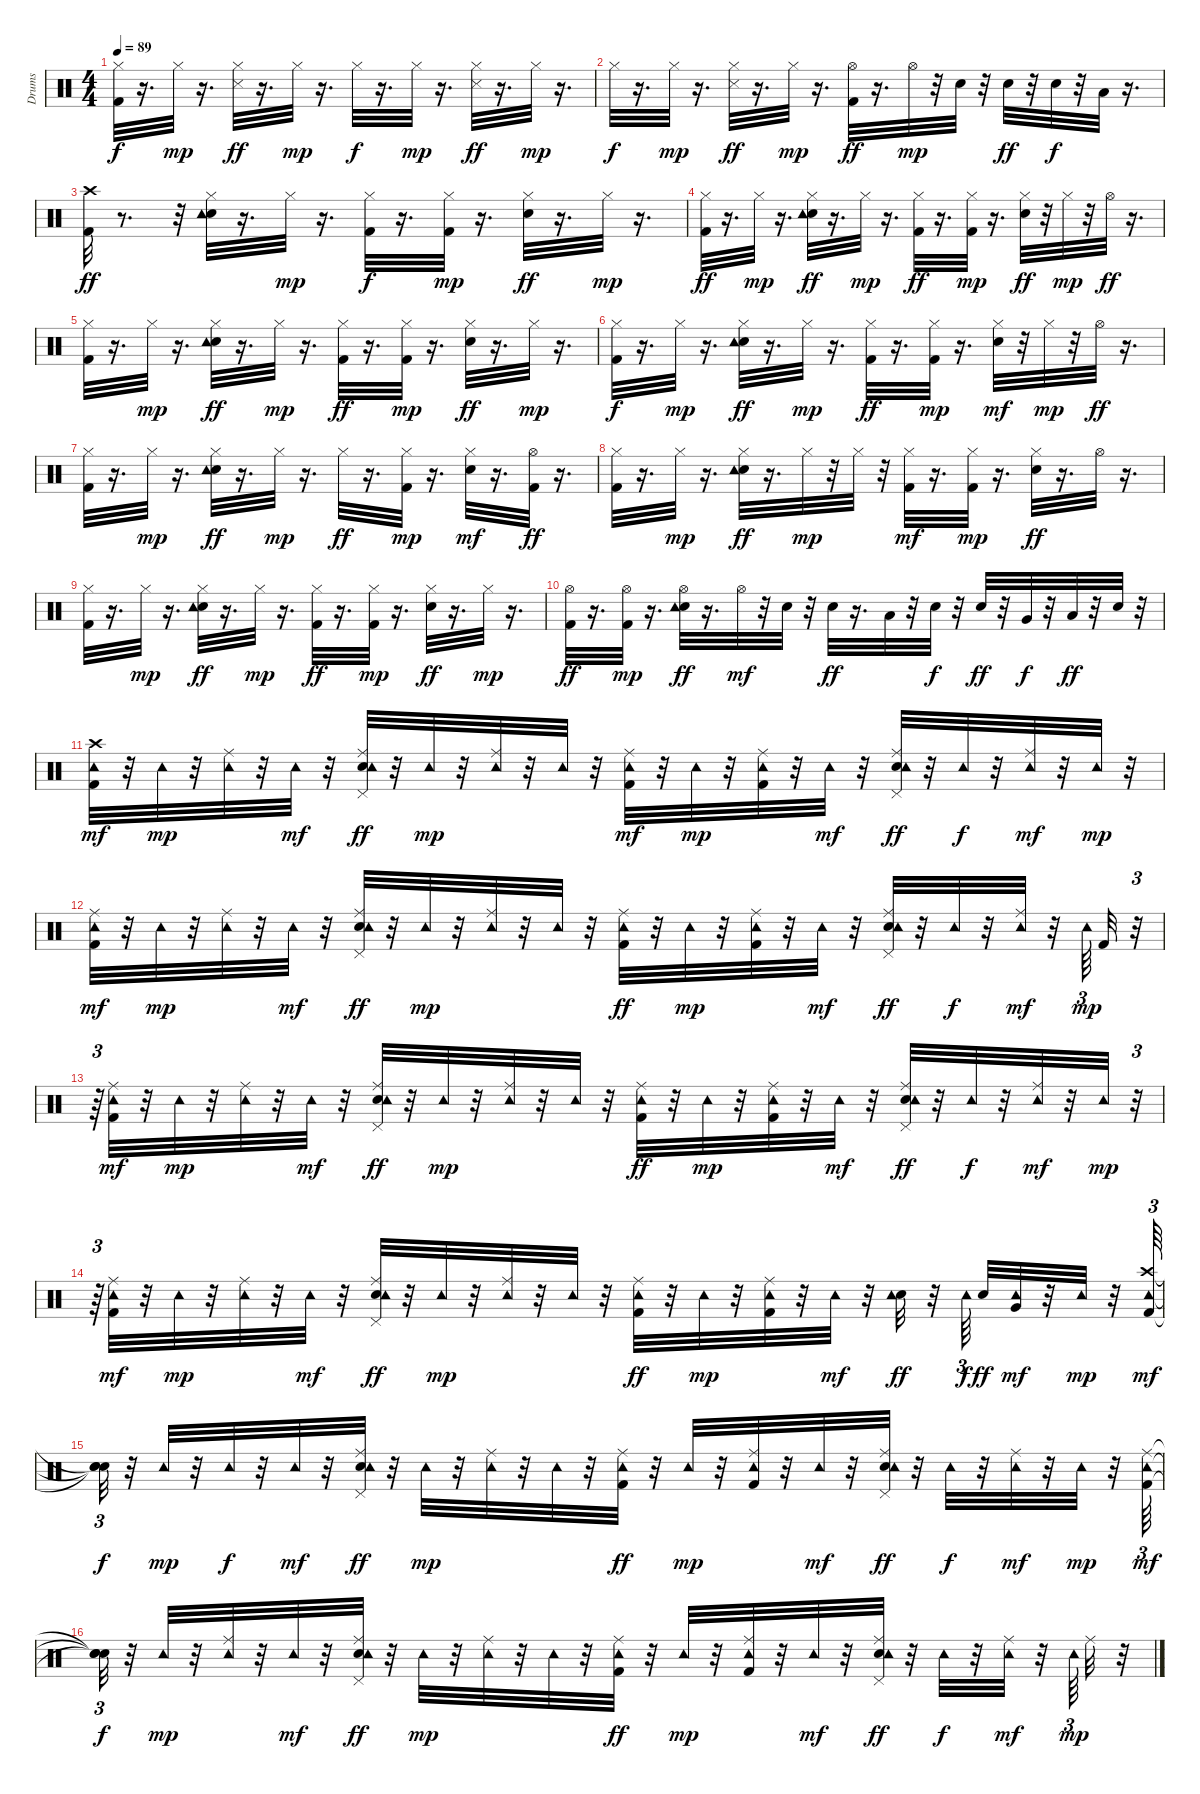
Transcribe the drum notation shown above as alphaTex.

\track ("Drums   " "Drums   ") {instrument percussion}
\staff {score}
\articulation defaults
\ts (4 4)
\tempo 89
\clef neutral
\ks c
("Kick (hit) 2" "Hi-Hat (closed)").32{dy f} r.16{d} "Hi-Hat (closed)".32{dy mp} r.16{d} ("Snare (side stick) 3" "Hi-Hat (closed)").32{dy ff} r.16{d} "Hi-Hat (closed)".32{dy mp} r.16{d} "Hi-Hat (closed)".32{dy f} r.16{d} "Hi-Hat (closed)".32{dy mp} r.16{d} ("Snare (side stick) 3" "Hi-Hat (closed)").32{dy ff} r.16{d} "Hi-Hat (closed)".32{dy mp} r.16{d} |
"Hi-Hat (closed)".32{dy f} r.16{d} "Hi-Hat (closed)".32{dy mp} r.16{d} ("Snare (side stick) 3" "Hi-Hat (closed)").32{dy ff} r.16{d} "Hi-Hat (closed)".32{dy mp} r.16{d} ("Kick (hit) 2" "Hi-Hat (open)").32{dy ff} r.16{d} "Hi-Hat (open)".32{dy mp} r.32 "Electric Snare (hit)".32 r.32 "Electric Snare (hit)".32{dy ff} r.32 "Electric Snare (hit)".32{dy f} r.32 "Low Tom (hit)".32 r.16{d} |
("Kick (hit) 2" "Crash high (hit)").32{dy ff} r.8{d} r.32 ("Electric Snare (hit)" "Hi-Hat (closed)" "Tambourine (hit)").32 r.16{d} "Hi-Hat (closed)".32{dy mp} r.16{d} ("Kick (hit) 2" "Hi-Hat (closed)").32{dy f} r.16{d} ("Kick (hit) 2" "Hi-Hat (closed)").32{dy mp} r.16{d} ("Electric Snare (hit)" "Hi-Hat (closed)").32{dy ff} r.16{d} "Hi-Hat (closed)".32{dy mp} r.16{d} |
("Kick (hit) 2" "Hi-Hat (closed)").32{dy ff} r.16{d} "Hi-Hat (closed)".32{dy mp} r.16{d} ("Electric Snare (hit)" "Hi-Hat (closed)" "Tambourine (hit)").32{dy ff} r.16{d} "Hi-Hat (closed)".32{dy mp} r.16{d} ("Kick (hit) 2" "Hi-Hat (closed)").32{dy ff} r.16{d} ("Kick (hit) 2" "Hi-Hat (closed)").32{dy mp} r.16{d} ("Electric Snare (hit)" "Hi-Hat (closed)").32{dy ff} r.32 "Hi-Hat (closed)".32{dy mp} r.32 "Hi-Hat (open)".32{dy ff} r.16{d} |
("Kick (hit) 2" "Hi-Hat (closed)").32 r.16{d} "Hi-Hat (closed)".32{dy mp} r.16{d} ("Electric Snare (hit)" "Hi-Hat (closed)" "Tambourine (hit)").32{dy ff} r.16{d} "Hi-Hat (closed)".32{dy mp} r.16{d} ("Kick (hit) 2" "Hi-Hat (closed)").32{dy ff} r.16{d} ("Kick (hit) 2" "Hi-Hat (closed)").32{dy mp} r.16{d} ("Electric Snare (hit)" "Hi-Hat (closed)").32{dy ff} r.16{d} "Hi-Hat (closed)".32{dy mp} r.16{d} |
("Kick (hit) 2" "Hi-Hat (closed)").32{dy f} r.16{d} "Hi-Hat (closed)".32{dy mp} r.16{d} ("Electric Snare (hit)" "Hi-Hat (closed)" "Tambourine (hit)").32{dy ff} r.16{d} "Hi-Hat (closed)".32{dy mp} r.16{d} ("Kick (hit) 2" "Hi-Hat (closed)").32{dy ff} r.16{d} ("Kick (hit) 2" "Hi-Hat (closed)").32{dy mp} r.16{d} ("Electric Snare (hit)" "Hi-Hat (closed)").32{dy mf} r.32 "Hi-Hat (closed)".32{dy mp} r.32 "Hi-Hat (open)".32{dy ff} r.16{d} |
("Kick (hit) 2" "Hi-Hat (closed)").32 r.16{d} "Hi-Hat (closed)".32{dy mp} r.16{d} ("Electric Snare (hit)" "Hi-Hat (closed)" "Tambourine (hit)").32{dy ff} r.16{d} "Hi-Hat (closed)".32{dy mp} r.16{d} "Hi-Hat (closed)".32{dy ff} r.16{d} ("Kick (hit) 2" "Hi-Hat (closed)").32{dy mp} r.16{d} ("Electric Snare (hit)" "Hi-Hat (closed)").32{dy mf} r.16{d} ("Kick (hit) 2" "Hi-Hat (open)").32{dy ff} r.16{d} |
("Kick (hit) 2" "Hi-Hat (closed)").32 r.16{d} "Hi-Hat (closed)".32{dy mp} r.16{d} ("Electric Snare (hit)" "Hi-Hat (closed)" "Tambourine (hit)").32{dy ff} r.16{d} "Hi-Hat (closed)".32{dy mp} r.32 "Hi-Hat (closed)".32 r.32 ("Kick (hit) 2" "Hi-Hat (closed)").32{dy mf} r.16{d} ("Kick (hit) 2" "Hi-Hat (closed)").32{dy mp} r.16{d} ("Electric Snare (hit)" "Hi-Hat (closed)").32{dy ff} r.16{d} "Hi-Hat (open)".32 r.16{d} |
("Kick (hit) 2" "Hi-Hat (closed)").32 r.16{d} "Hi-Hat (closed)".32{dy mp} r.16{d} ("Electric Snare (hit)" "Hi-Hat (closed)" "Tambourine (hit)").32{dy ff} r.16{d} "Hi-Hat (closed)".32{dy mp} r.16{d} ("Kick (hit) 2" "Hi-Hat (closed)").32{dy ff} r.16{d} ("Kick (hit) 2" "Hi-Hat (closed)").32{dy mp} r.16{d} ("Electric Snare (hit)" "Hi-Hat (closed)").32{dy ff} r.16{d} "Hi-Hat (closed)".32{dy mp} r.16{d} |
("Kick (hit) 2" "Hi-Hat (open)").32{dy ff} r.16{d} ("Kick (hit) 2" "Hi-Hat (open)").32{dy mp} r.16{d} ("Electric Snare (hit)" "Hi-Hat (open)" "Tambourine (hit)").32{dy ff} r.16{d} "Hi-Hat (open)".32{dy mf} r.32 "Electric Snare (hit)".32 r.32 "Electric Snare (hit)".32{dy ff} r.16{d} "Low Tom (hit)".32 r.32 "Electric Snare (hit)".32{dy f} r.32 "Electric Snare (hit)".32{dy ff} r.32 "Very Low Tom (hit)".32{dy f} r.32 "Low Floor Tom (hit)".32{dy ff} r.32 "Electric Snare (hit)".32 r.32 |
("Kick (hit) 2" "Crash high (hit)" "Tambourine (hit)").32{dy mf} r.32 "Tambourine (hit)".32{dy mp} r.32 ("Ride (middle)" "Tambourine (hit)").32 r.32 "Tambourine (hit)".32{dy mf} r.32 ("Electric Snare (hit)" "Pedal Hi-Hat (hit)" "Ride (middle)" "Tambourine (hit)").32{dy ff} r.32 "Tambourine (hit)".32{dy mp} r.32 ("Ride (middle)" "Tambourine (hit)").32 r.32 "Tambourine (hit)".32 r.32 ("Kick (hit) 2" "Ride (middle)" "Tambourine (hit)").32{dy mf} r.32 "Tambourine (hit)".32{dy mp} r.32 ("Kick (hit) 2" "Ride (middle)" "Tambourine (hit)").32 r.32 "Tambourine (hit)".32{dy mf} r.32 ("Electric Snare (hit)" "Pedal Hi-Hat (hit)" "Ride (middle)" "Tambourine (hit)").32{dy ff} r.32 "Tambourine (hit)".32{dy f} r.32 ("Ride (middle)" "Tambourine (hit)").32{dy mf} r.32 "Tambourine (hit)".32{dy mp} r.32 |
("Kick (hit) 2" "Ride (middle)" "Tambourine (hit)").32{dy mf} r.32 "Tambourine (hit)".32{dy mp} r.32 ("Ride (middle)" "Tambourine (hit)").32 r.32 "Tambourine (hit)".32{dy mf} r.32 ("Electric Snare (hit)" "Pedal Hi-Hat (hit)" "Ride (middle)" "Tambourine (hit)").32{dy ff} r.32 "Tambourine (hit)".32{dy mp} r.32 ("Ride (middle)" "Tambourine (hit)").32 r.32 "Tambourine (hit)".32 r.32 ("Kick (hit) 2" "Ride (middle)" "Tambourine (hit)").32{dy ff} r.32 "Tambourine (hit)".32{dy mp} r.32 ("Kick (hit) 2" "Ride (middle)" "Tambourine (hit)").32 r.32 "Tambourine (hit)".32{dy mf} r.32 ("Electric Snare (hit)" "Pedal Hi-Hat (hit)" "Ride (middle)" "Tambourine (hit)").32{dy ff} r.32 "Tambourine (hit)".32{dy f} r.32 ("Ride (middle)" "Tambourine (hit)").32{dy mf} r.32 "Tambourine (hit)".64{tu (3 2) dy mp} "Kick (hit) 2".32 r.32{tu (3 2)} |
r.64{tu (3 2)} ("Kick (hit) 2" "Ride (middle)" "Tambourine (hit)").32{dy mf} r.32 "Tambourine (hit)".32{dy mp} r.32 ("Ride (middle)" "Tambourine (hit)").32 r.32 "Tambourine (hit)".32{dy mf} r.32 ("Electric Snare (hit)" "Pedal Hi-Hat (hit)" "Ride (middle)" "Tambourine (hit)").32{dy ff} r.32 "Tambourine (hit)".32{dy mp} r.32 ("Ride (middle)" "Tambourine (hit)").32 r.32 "Tambourine (hit)".32 r.32 ("Kick (hit) 2" "Ride (middle)" "Tambourine (hit)").32{dy ff} r.32 "Tambourine (hit)".32{dy mp} r.32 ("Kick (hit) 2" "Ride (middle)" "Tambourine (hit)").32 r.32 "Tambourine (hit)".32{dy mf} r.32 ("Electric Snare (hit)" "Pedal Hi-Hat (hit)" "Ride (middle)" "Tambourine (hit)").32{dy ff} r.32 "Tambourine (hit)".32{dy f} r.32 ("Ride (middle)" "Tambourine (hit)").32{dy mf} r.32 "Tambourine (hit)".32{dy mp} r.32{tu (3 2)} |
r.64{tu (3 2)} ("Kick (hit) 2" "Ride (middle)" "Tambourine (hit)").32{dy mf} r.32 "Tambourine (hit)".32{dy mp} r.32 ("Ride (middle)" "Tambourine (hit)").32 r.32 "Tambourine (hit)".32{dy mf} r.32 ("Electric Snare (hit)" "Pedal Hi-Hat (hit)" "Ride (middle)" "Tambourine (hit)").32{dy ff} r.32 "Tambourine (hit)".32{dy mp} r.32 ("Ride (middle)" "Tambourine (hit)").32 r.32 "Tambourine (hit)".32 r.32 ("Kick (hit) 2" "Ride (middle)" "Tambourine (hit)").32{dy ff} r.32 "Tambourine (hit)".32{dy mp} r.32 ("Kick (hit) 2" "Ride (middle)" "Tambourine (hit)").32 r.32 "Tambourine (hit)".32{dy mf} r.32 ("Electric Snare (hit)" "Tambourine (hit)").32{dy ff} r.32 "Tambourine (hit)".64{tu (3 2) dy f beam splitsecondary} "Electric Snare (hit)".32{dy ff} ("Very Low Tom (hit)" "Tambourine (hit)").32{dy mf} r.32 "Tambourine (hit)".32{dy mp} r.32 ("Kick (hit) 2" "Crash high (hit)" "Tambourine (hit)").64{tu (3 2) dy mf} |
("Snare (hit)"{t} "Snare (hit)"{t} "Snare (hit)"{t}).32{tu (3 2) dy f} r.32 "Tambourine (hit)".32{dy mp} r.32 "Tambourine (hit)".32{dy f} r.32 "Tambourine (hit)".32{dy mf} r.32 ("Electric Snare (hit)" "Pedal Hi-Hat (hit)" "Ride (middle)" "Tambourine (hit)").32{dy ff} r.32 "Tambourine (hit)".32{dy mp} r.32 ("Ride (middle)" "Tambourine (hit)").32 r.32 "Tambourine (hit)".32 r.32 ("Kick (hit) 2" "Ride (middle)" "Tambourine (hit)").32{dy ff} r.32 "Tambourine (hit)".32{dy mp} r.32 ("Kick (hit) 2" "Ride (middle)" "Tambourine (hit)").32 r.32 "Tambourine (hit)".32{dy mf} r.32 ("Electric Snare (hit)" "Pedal Hi-Hat (hit)" "Ride (middle)" "Tambourine (hit)").32{dy ff} r.32 "Tambourine (hit)".32{dy f} r.32 ("Ride (middle)" "Tambourine (hit)").32{dy mf} r.32 "Tambourine (hit)".32{dy mp} r.32 ("Kick (hit) 2" "Ride (middle)" "Tambourine (hit)").64{tu (3 2) dy mf} |
("Snare (hit)"{t} "Snare (hit)"{t} "Snare (hit)"{t}).32{tu (3 2) dy f} r.32 "Tambourine (hit)".32{dy mp} r.32 ("Ride (middle)" "Tambourine (hit)").32 r.32 "Tambourine (hit)".32{dy mf} r.32 ("Electric Snare (hit)" "Pedal Hi-Hat (hit)" "Ride (middle)" "Tambourine (hit)").32{dy ff} r.32 "Tambourine (hit)".32{dy mp} r.32 ("Ride (middle)" "Tambourine (hit)").32 r.32 "Tambourine (hit)".32 r.32 ("Kick (hit) 2" "Ride (middle)" "Tambourine (hit)").32{dy ff} r.32 "Tambourine (hit)".32{dy mp} r.32 ("Kick (hit) 2" "Ride (middle)" "Tambourine (hit)").32 r.32 "Tambourine (hit)".32{dy mf} r.32 ("Electric Snare (hit)" "Pedal Hi-Hat (hit)" "Ride (middle)" "Tambourine (hit)").32{dy ff} r.32 "Tambourine (hit)".32{dy f} r.32 ("Ride (middle)" "Tambourine (hit)").32{dy mf} r.32 "Tambourine (hit)".64{tu (3 2) dy mp} "Ride (middle)".32 r.32
